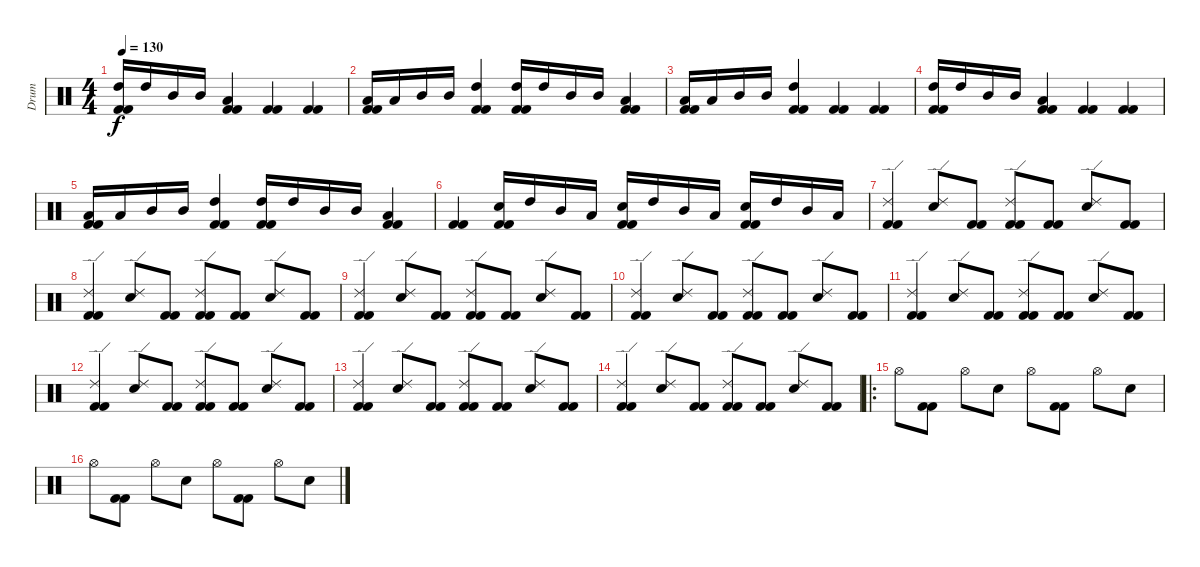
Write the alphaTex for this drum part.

\track ("Drum" "Drum") {instrument percussion}
\staff {score}
\articulation defaults
\ts (4 4)
\tempo 130
\clef neutral
\ks c
("Kick (hit) 2" "Kick (hit) 2" "High Tom (hit)").16{dy f} "High Tom (hit)".16 "Mid Tom (hit)".16 "Mid Tom (hit)".16 ("Kick (hit) 2" "Kick (hit) 2" "Low Tom (hit)").4 ("Kick (hit) 2" "Kick (hit) 2").4 ("Kick (hit) 2" "Kick (hit) 2").4 |
("Kick (hit) 2" "Kick (hit) 2" "Low Tom (hit)").16 "Low Tom (hit)".16 "Mid Tom (hit)".16 "Mid Tom (hit)".16 ("Kick (hit) 2" "Kick (hit) 2" "High Tom (hit)").4 ("Kick (hit) 2" "Kick (hit) 2" "High Tom (hit)").16 "High Tom (hit)".16 "Mid Tom (hit)".16 "Mid Tom (hit)".16 ("Kick (hit) 2" "Kick (hit) 2" "Low Tom (hit)").4 |
("Kick (hit) 2" "Kick (hit) 2" "Low Tom (hit)").16 "Low Tom (hit)".16 "Mid Tom (hit)".16 "Mid Tom (hit)".16 ("Kick (hit) 2" "Kick (hit) 2" "High Tom (hit)").4 ("Kick (hit) 2" "Kick (hit) 2").4 ("Kick (hit) 2" "Kick (hit) 2").4 |
("Kick (hit) 2" "Kick (hit) 2" "High Tom (hit)").16 "High Tom (hit)".16 "Mid Tom (hit)".16 "Mid Tom (hit)".16 ("Kick (hit) 2" "Kick (hit) 2" "Low Tom (hit)").4 ("Kick (hit) 2" "Kick (hit) 2").4 ("Kick (hit) 2" "Kick (hit) 2").4 |
("Kick (hit) 2" "Kick (hit) 2" "Low Tom (hit)").16 "Low Tom (hit)".16 "Mid Tom (hit)".16 "Mid Tom (hit)".16 ("Kick (hit) 2" "Kick (hit) 2" "High Tom (hit)").4 ("Kick (hit) 2" "Kick (hit) 2" "High Tom (hit)").16 "High Tom (hit)".16 "Mid Tom (hit)".16 "Mid Tom (hit)".16 ("Kick (hit) 2" "Kick (hit) 2" "Low Tom (hit)").4 |
("Kick (hit) 2" "Kick (hit) 2").4 ("Kick (hit) 2" "Kick (hit) 2" "Snare (hit) 2").16 "High Tom (hit)".16 "Mid Tom (hit)".16 "Low Tom (hit)".16 ("Kick (hit) 2" "Kick (hit) 2" "Snare (hit) 2").16 "High Tom (hit)".16 "Mid Tom (hit)".16 "Low Tom (hit)".16 ("Kick (hit) 2" "Kick (hit) 2" "Snare (hit) 2").16 "High Tom (hit)".16 "Mid Tom (hit)".16 "Low Tom (hit)".16 |
("Kick (hit) 2" "Kick (hit) 2" "Ride (edge) 2").4 ("Snare (hit) 2" "Ride (edge) 2").8 ("Kick (hit) 2" "Kick (hit) 2").8 ("Kick (hit) 2" "Kick (hit) 2" "Ride (edge) 2").8 ("Kick (hit) 2" "Kick (hit) 2").8 ("Snare (hit) 2" "Ride (edge) 2").8 ("Kick (hit) 2" "Kick (hit) 2").8 |
("Kick (hit) 2" "Kick (hit) 2" "Ride (edge) 2").4 ("Snare (hit) 2" "Ride (edge) 2").8 ("Kick (hit) 2" "Kick (hit) 2").8 ("Kick (hit) 2" "Kick (hit) 2" "Ride (edge) 2").8 ("Kick (hit) 2" "Kick (hit) 2").8 ("Snare (hit) 2" "Ride (edge) 2").8 ("Kick (hit) 2" "Kick (hit) 2").8 |
("Kick (hit) 2" "Kick (hit) 2" "Ride (edge) 2").4 ("Snare (hit) 2" "Ride (edge) 2").8 ("Kick (hit) 2" "Kick (hit) 2").8 ("Kick (hit) 2" "Kick (hit) 2" "Ride (edge) 2").8 ("Kick (hit) 2" "Kick (hit) 2").8 ("Snare (hit) 2" "Ride (edge) 2").8 ("Kick (hit) 2" "Kick (hit) 2").8 |
("Kick (hit) 2" "Kick (hit) 2" "Ride (edge) 2").4 ("Snare (hit) 2" "Ride (edge) 2").8 ("Kick (hit) 2" "Kick (hit) 2").8 ("Kick (hit) 2" "Kick (hit) 2" "Ride (edge) 2").8 ("Kick (hit) 2" "Kick (hit) 2").8 ("Snare (hit) 2" "Ride (edge) 2").8 ("Kick (hit) 2" "Kick (hit) 2").8 |
("Kick (hit) 2" "Kick (hit) 2" "Ride (edge) 2").4 ("Snare (hit) 2" "Ride (edge) 2").8 ("Kick (hit) 2" "Kick (hit) 2").8 ("Kick (hit) 2" "Kick (hit) 2" "Ride (edge) 2").8 ("Kick (hit) 2" "Kick (hit) 2").8 ("Snare (hit) 2" "Ride (edge) 2").8 ("Kick (hit) 2" "Kick (hit) 2").8 |
("Kick (hit) 2" "Kick (hit) 2" "Ride (edge) 2").4 ("Snare (hit) 2" "Ride (edge) 2").8 ("Kick (hit) 2" "Kick (hit) 2").8 ("Kick (hit) 2" "Kick (hit) 2" "Ride (edge) 2").8 ("Kick (hit) 2" "Kick (hit) 2").8 ("Snare (hit) 2" "Ride (edge) 2").8 ("Kick (hit) 2" "Kick (hit) 2").8 |
("Kick (hit) 2" "Kick (hit) 2" "Ride (edge) 2").4 ("Snare (hit) 2" "Ride (edge) 2").8 ("Kick (hit) 2" "Kick (hit) 2").8 ("Kick (hit) 2" "Kick (hit) 2" "Ride (edge) 2").8 ("Kick (hit) 2" "Kick (hit) 2").8 ("Snare (hit) 2" "Ride (edge) 2").8 ("Kick (hit) 2" "Kick (hit) 2").8 |
("Kick (hit) 2" "Kick (hit) 2" "Ride (edge) 2").4 ("Snare (hit) 2" "Ride (edge) 2").8 ("Kick (hit) 2" "Kick (hit) 2").8 ("Kick (hit) 2" "Kick (hit) 2" "Ride (edge) 2").8 ("Kick (hit) 2" "Kick (hit) 2").8 ("Snare (hit) 2" "Ride (edge) 2").8 ("Kick (hit) 2" "Kick (hit) 2").8 |
\ro "Hi-Hat (open)".8
("Kick (hit) 2" "Kick (hit) 2").8 "Hi-Hat (open)".8 "Snare (hit) 2".8 "Hi-Hat (open)".8 ("Kick (hit) 2" "Kick (hit) 2").8 "Hi-Hat (open)".8 "Snare (hit) 2".8 |
"Hi-Hat (open)".8 ("Kick (hit) 2" "Kick (hit) 2").8 "Hi-Hat (open)".8 "Snare (hit) 2".8 "Hi-Hat (open)".8 ("Kick (hit) 2" "Kick (hit) 2").8 "Hi-Hat (open)".8 "Snare (hit) 2".8
